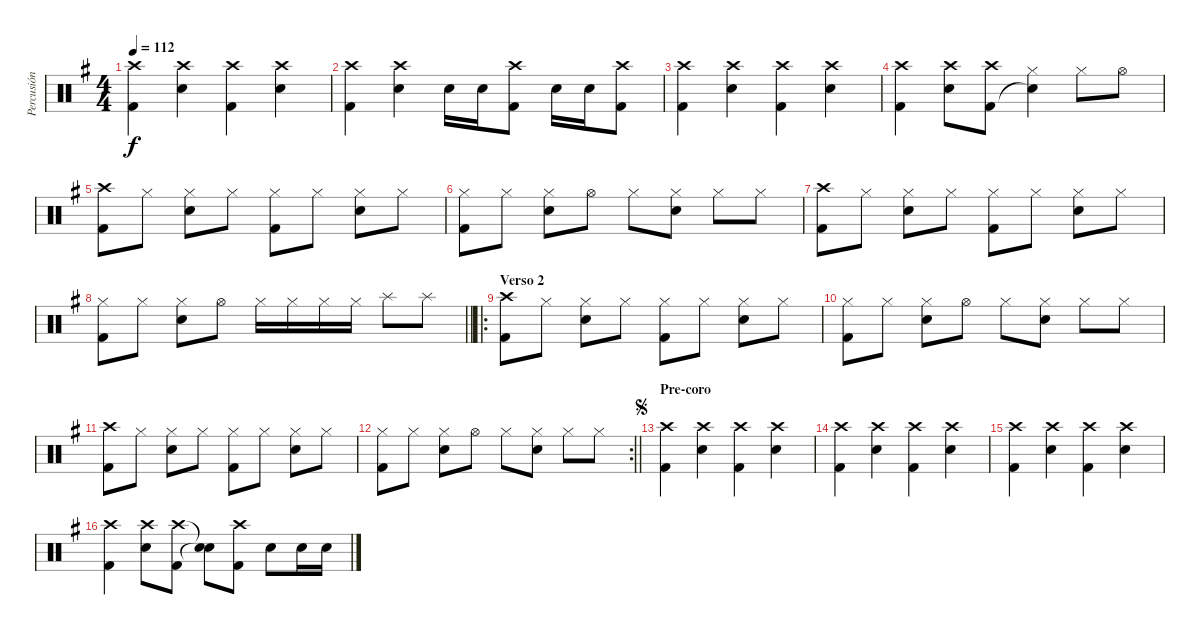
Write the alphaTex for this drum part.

\track ("Percusión" "Percusión") {instrument percussion}
\staff {score}
\articulation defaults
\ts (4 4)
\tempo 112
\clef neutral
\ks g
("Crash high (hit)" "Kick (hit) 2").4{dy f} ("Crash high (hit)" "Electric Snare (hit)").4 ("Crash high (hit)" "Kick (hit) 2").4 ("Crash high (hit)" "Electric Snare (hit)").4 |
("Crash high (hit)" "Kick (hit) 2").4 ("Crash high (hit)" "Electric Snare (hit)").4 "Electric Snare (hit)".16 "Electric Snare (hit)".16 ("Crash high (hit)" "Kick (hit) 2").8 "Electric Snare (hit)".16 "Electric Snare (hit)".16 ("Crash high (hit)" "Kick (hit) 2").8 |
("Crash high (hit)" "Kick (hit) 2").4 ("Crash high (hit)" "Electric Snare (hit)").4 ("Crash high (hit)" "Kick (hit) 2").4 ("Crash high (hit)" "Electric Snare (hit)").4 |
("Crash high (hit)" "Kick (hit) 2").4 ("Crash high (hit)" "Electric Snare (hit)").8 ("Crash high (hit)" "Kick (hit) 2").8 ("Hi-Hat (closed)" "Snare (hit)"{t}).4 "Hi-Hat (closed)".8 "Hi-Hat (open)".8 |
("Crash high (hit)" "Kick (hit) 2").8 "Hi-Hat (closed)".8 ("Hi-Hat (closed)" "Electric Snare (hit)").8 "Hi-Hat (closed)".8 ("Hi-Hat (closed)" "Kick (hit) 2").8 "Hi-Hat (closed)".8 ("Hi-Hat (closed)" "Electric Snare (hit)").8 "Hi-Hat (closed)".8 |
("Hi-Hat (closed)" "Kick (hit) 2").8 "Hi-Hat (closed)".8 ("Hi-Hat (closed)" "Electric Snare (hit)").8 "Hi-Hat (open)".8 "Hi-Hat (closed)".8 ("Hi-Hat (closed)" "Electric Snare (hit)").8 "Hi-Hat (closed)".8 "Hi-Hat (closed)".8 |
("Crash high (hit)" "Kick (hit) 2").8 "Hi-Hat (closed)".8 ("Hi-Hat (closed)" "Electric Snare (hit)").8 "Hi-Hat (closed)".8 ("Hi-Hat (closed)" "Kick (hit) 2").8 "Hi-Hat (closed)".8 ("Hi-Hat (closed)" "Electric Snare (hit)").8 "Hi-Hat (closed)".8 |
\barLineRight lightlight
("Hi-Hat (closed)" "Kick (hit) 2").8 "Hi-Hat (closed)".8 ("Hi-Hat (closed)" "Electric Snare (hit)").8 "Hi-Hat (open)".8 "Hi-Hat (closed)".16 "Hi-Hat (closed)".16 "Hi-Hat (closed)".16 "Hi-Hat (closed)".16 "Splash (hit)".8 "Splash (hit)".8 |
\ro
\section ("" "Verso 2")
("Crash high (hit)" "Kick (hit) 2").8 "Hi-Hat (closed)".8 ("Hi-Hat (closed)" "Electric Snare (hit)").8 "Hi-Hat (closed)".8 ("Hi-Hat (closed)" "Kick (hit) 2").8 "Hi-Hat (closed)".8 ("Hi-Hat (closed)" "Electric Snare (hit)").8 "Hi-Hat (closed)".8 |
("Hi-Hat (closed)" "Kick (hit) 2").8 "Hi-Hat (closed)".8 ("Hi-Hat (closed)" "Electric Snare (hit)").8 "Hi-Hat (open)".8 "Hi-Hat (closed)".8 ("Hi-Hat (closed)" "Electric Snare (hit)").8 "Hi-Hat (closed)".8 "Hi-Hat (closed)".8 |
("Crash high (hit)" "Kick (hit) 2").8 "Hi-Hat (closed)".8 ("Hi-Hat (closed)" "Electric Snare (hit)").8 "Hi-Hat (closed)".8 ("Hi-Hat (closed)" "Kick (hit) 2").8 "Hi-Hat (closed)".8 ("Hi-Hat (closed)" "Electric Snare (hit)").8 "Hi-Hat (closed)".8 |
\rc 2
\barLineRight lightlight
("Hi-Hat (closed)" "Kick (hit) 2").8 "Hi-Hat (closed)".8 ("Hi-Hat (closed)" "Electric Snare (hit)").8 "Hi-Hat (open)".8 "Hi-Hat (closed)".8 ("Hi-Hat (closed)" "Electric Snare (hit)").8 "Hi-Hat (closed)".8 "Hi-Hat (closed)".8 |
\section ("" "Pre-coro")
\jump segno
("Crash high (hit)" "Kick (hit) 2").4 ("Crash high (hit)" "Electric Snare (hit)").4 ("Crash high (hit)" "Kick (hit) 2").4 ("Crash high (hit)" "Electric Snare (hit)").4 |
("Crash high (hit)" "Kick (hit) 2").4 ("Crash high (hit)" "Electric Snare (hit)").4 ("Crash high (hit)" "Kick (hit) 2").4 ("Crash high (hit)" "Electric Snare (hit)").4 |
("Crash high (hit)" "Kick (hit) 2").4 ("Crash high (hit)" "Electric Snare (hit)").4 ("Crash high (hit)" "Kick (hit) 2").4 ("Crash high (hit)" "Electric Snare (hit)").4 |
("Crash high (hit)" "Kick (hit) 2").4 ("Crash high (hit)" "Electric Snare (hit)").8 ("Crash high (hit)" "Kick (hit) 2").8 ("Snare (hit)"{t} "Snare (hit)"{t}).8 ("Crash high (hit)" "Kick (hit) 2").8 "Electric Snare (hit)".8 "Electric Snare (hit)".16 "Electric Snare (hit)".16
